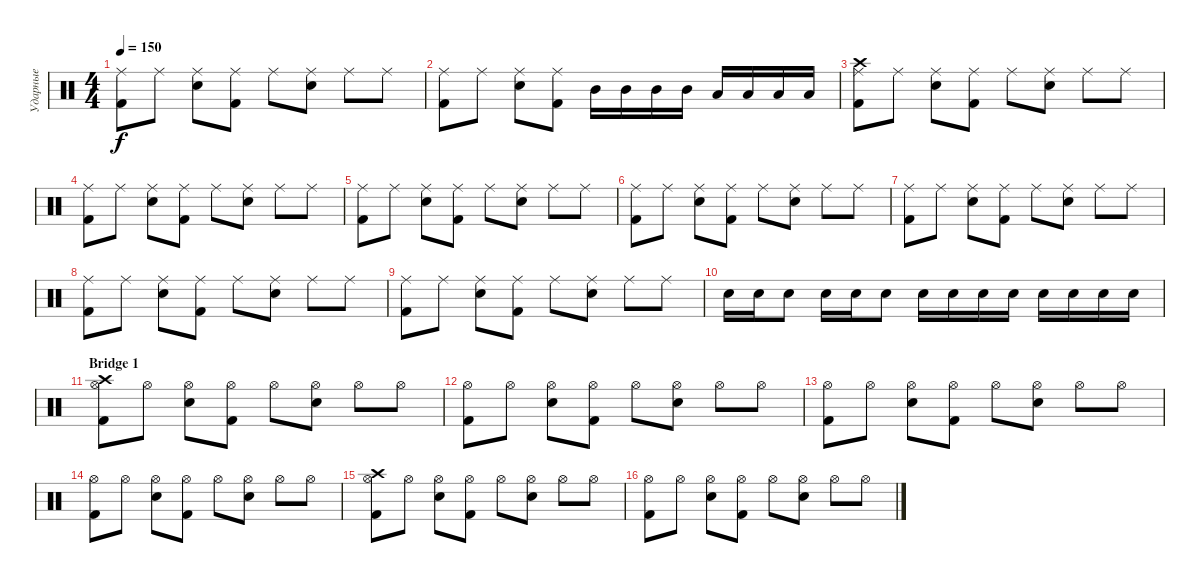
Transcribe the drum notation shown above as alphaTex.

\track ("Ударные" "Ударные") {instrument percussion}
\staff {score}
\articulation defaults
\ts (4 4)
\tempo 150
\clef neutral
\ks c
("Ride (middle)" "Kick (hit) 2").8{dy f} "Ride (middle)".8 ("Ride (middle)" "Snare (hit) 2").8 ("Ride (middle)" "Kick (hit) 2").8 "Ride (middle)".8 ("Ride (middle)" "Snare (hit) 2").8 "Ride (middle)".8 "Ride (middle)".8 |
("Ride (middle)" "Kick (hit) 2").8 "Ride (middle)".8 ("Ride (middle)" "Snare (hit) 2").8 ("Ride (middle)" "Kick (hit) 2").8 "Mid Tom (hit)".16 "Mid Tom (hit)".16 "Mid Tom (hit)".16 "Mid Tom (hit)".16 "Low Tom (hit)".16 "Low Tom (hit)".16 "Low Floor Tom (hit)".16 "Low Floor Tom (hit)".16 |
("Ride (middle)" "Crash high (hit)" "Kick (hit) 2").8 "Ride (middle)".8 ("Ride (middle)" "Snare (hit) 2").8 ("Ride (middle)" "Kick (hit) 2").8 "Ride (middle)".8 ("Ride (middle)" "Snare (hit) 2").8 "Ride (middle)".8 "Ride (middle)".8 |
("Ride (middle)" "Kick (hit) 2").8 "Ride (middle)".8 ("Ride (middle)" "Snare (hit) 2").8 ("Ride (middle)" "Kick (hit) 2").8 "Ride (middle)".8 ("Ride (middle)" "Snare (hit) 2").8 "Ride (middle)".8 "Ride (middle)".8 |
("Ride (middle)" "Kick (hit) 2").8 "Ride (middle)".8 ("Ride (middle)" "Snare (hit) 2").8 ("Ride (middle)" "Kick (hit) 2").8 "Ride (middle)".8 ("Ride (middle)" "Snare (hit) 2").8 "Ride (middle)".8 "Ride (middle)".8 |
("Ride (middle)" "Kick (hit) 2").8 "Ride (middle)".8 ("Ride (middle)" "Snare (hit) 2").8 ("Ride (middle)" "Kick (hit) 2").8 "Ride (middle)".8 ("Ride (middle)" "Snare (hit) 2").8 "Ride (middle)".8 "Ride (middle)".8 |
("Ride (middle)" "Kick (hit) 2").8 "Ride (middle)".8 ("Ride (middle)" "Snare (hit) 2").8 ("Ride (middle)" "Kick (hit) 2").8 "Ride (middle)".8 ("Ride (middle)" "Snare (hit) 2").8 "Ride (middle)".8 "Ride (middle)".8 |
("Ride (middle)" "Kick (hit) 2").8 "Ride (middle)".8 ("Ride (middle)" "Snare (hit) 2").8 ("Ride (middle)" "Kick (hit) 2").8 "Ride (middle)".8 ("Ride (middle)" "Snare (hit) 2").8 "Ride (middle)".8 "Ride (middle)".8 |
("Ride (middle)" "Kick (hit) 2").8 "Ride (middle)".8 ("Ride (middle)" "Snare (hit) 2").8 ("Ride (middle)" "Kick (hit) 2").8 "Ride (middle)".8 ("Ride (middle)" "Snare (hit) 2").8 "Ride (middle)".8 "Ride (middle)".8 |
"Snare (hit) 2".16 "Snare (hit) 2".16 "Snare (hit) 2".8 "Snare (hit) 2".16 "Snare (hit) 2".16 "Snare (hit) 2".8 "Snare (hit) 2".16 "Snare (hit) 2".16 "Snare (hit) 2".16 "Snare (hit) 2".16 "Snare (hit) 2".16 "Snare (hit) 2".16 "Snare (hit) 2".16 "Snare (hit) 2".16 |
\section ("" "Bridge 1")
("Hi-Hat (open)" "Crash high (hit)" "Kick (hit) 2").8 "Hi-Hat (open)".8 ("Hi-Hat (open)" "Snare (hit) 2").8 ("Hi-Hat (open)" "Kick (hit) 2").8 "Hi-Hat (open)".8 ("Hi-Hat (open)" "Snare (hit) 2").8 "Hi-Hat (open)".8 "Hi-Hat (open)".8 |
("Hi-Hat (open)" "Kick (hit) 2").8 "Hi-Hat (open)".8 ("Hi-Hat (open)" "Snare (hit) 2").8 ("Hi-Hat (open)" "Kick (hit) 2").8 "Hi-Hat (open)".8 ("Hi-Hat (open)" "Snare (hit) 2").8 "Hi-Hat (open)".8 "Hi-Hat (open)".8 |
("Hi-Hat (open)" "Kick (hit) 2").8 "Hi-Hat (open)".8 ("Hi-Hat (open)" "Snare (hit) 2").8 ("Hi-Hat (open)" "Kick (hit) 2").8 "Hi-Hat (open)".8 ("Hi-Hat (open)" "Snare (hit) 2").8 "Hi-Hat (open)".8 "Hi-Hat (open)".8 |
("Hi-Hat (open)" "Kick (hit) 2").8 "Hi-Hat (open)".8 ("Hi-Hat (open)" "Snare (hit) 2").8 ("Hi-Hat (open)" "Kick (hit) 2").8 "Hi-Hat (open)".8 ("Hi-Hat (open)" "Snare (hit) 2").8 "Hi-Hat (open)".8 "Hi-Hat (open)".8 |
("Hi-Hat (open)" "Crash high (hit)" "Kick (hit) 2").8 "Hi-Hat (open)".8 ("Hi-Hat (open)" "Snare (hit) 2").8 ("Hi-Hat (open)" "Kick (hit) 2").8 "Hi-Hat (open)".8 ("Hi-Hat (open)" "Snare (hit) 2").8 "Hi-Hat (open)".8 "Hi-Hat (open)".8 |
("Hi-Hat (open)" "Kick (hit) 2").8 "Hi-Hat (open)".8 ("Hi-Hat (open)" "Snare (hit) 2").8 ("Hi-Hat (open)" "Kick (hit) 2").8 "Hi-Hat (open)".8 ("Hi-Hat (open)" "Snare (hit) 2").8 "Hi-Hat (open)".8 "Hi-Hat (open)".8
